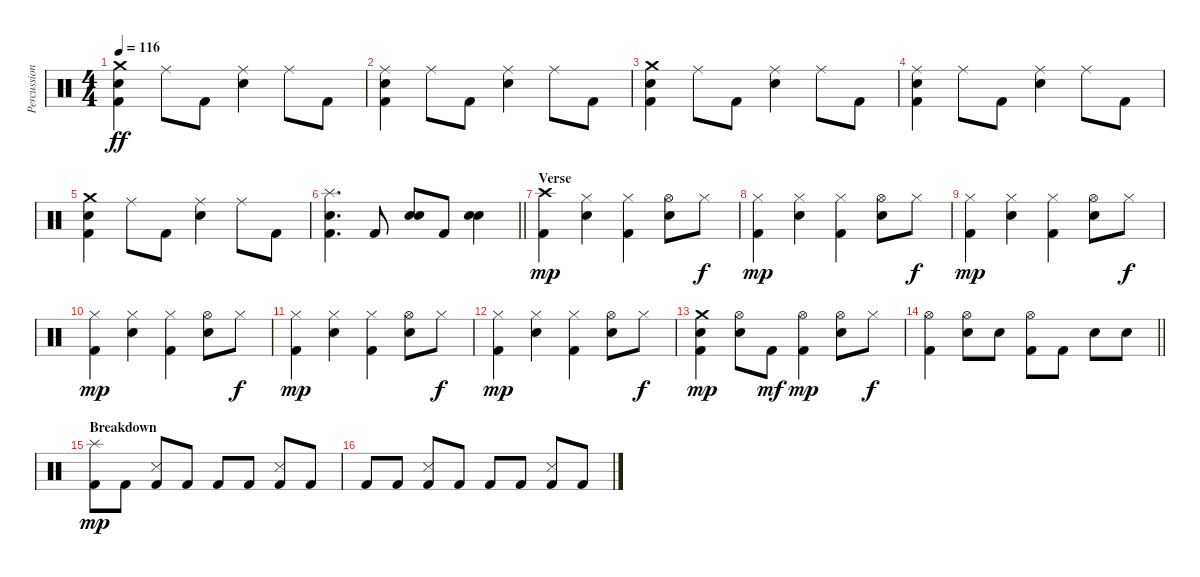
\track ("Percussion" "Percussion") {instrument percussion}
\staff {score}
\articulation defaults
\ts (4 4)
\tempo 116
\clef neutral
\ks c
("Crash medium (hit)" "Snare (hit) 2" "Kick (hit) 2").4{dy ff} "Ride (middle)".8 "Kick (hit) 2".8 ("Ride (middle)" "Snare (hit) 2").4 "Ride (middle)".8 "Kick (hit) 2".8 |
("Ride (middle)" "Snare (hit) 2" "Kick (hit) 2").4 "Ride (middle)".8 "Kick (hit) 2".8 ("Ride (middle)" "Snare (hit) 2").4 "Ride (middle)".8 "Kick (hit) 2".8 |
("Crash medium (hit)" "Snare (hit) 2" "Kick (hit) 2").4 "Ride (middle)".8 "Kick (hit) 2".8 ("Ride (middle)" "Snare (hit) 2").4 "Ride (middle)".8 "Kick (hit) 2".8 |
("Ride (middle)" "Snare (hit) 2" "Kick (hit) 2").4 "Ride (middle)".8 "Kick (hit) 2".8 ("Ride (middle)" "Snare (hit) 2").4 "Ride (middle)".8 "Kick (hit) 2".8 |
("Crash medium (hit)" "Snare (hit) 2" "Kick (hit) 2").4 "Ride (middle)".8 "Kick (hit) 2".8 ("Ride (middle)" "Snare (hit) 2").4 "Ride (middle)".8 "Kick (hit) 2".8 |
\barLineRight lightlight
("Splash (hit)" "Snare (hit) 2" "Kick (hit) 2").4{d} "Kick (hit) 2".8 ("Snare (hit) 2" "Snare (hit) 2").8 "Kick (hit) 2".8 ("Snare (hit) 2" "Snare (hit) 2").4 |
\section ("" "Verse")
("Crash high (hit)" "Kick (hit) 2").4{dy mp} ("Hi-Hat (closed)" "Snare (hit) 2").4 ("Hi-Hat (closed)" "Kick (hit) 2").4 ("Hi-Hat (open)" "Snare (hit) 2").8 "Hi-Hat (closed)".8{dy f} |
("Hi-Hat (closed)" "Kick (hit) 2").4{dy mp} ("Hi-Hat (closed)" "Snare (hit) 2").4 ("Hi-Hat (closed)" "Kick (hit) 2").4 ("Hi-Hat (open)" "Snare (hit) 2").8 "Hi-Hat (closed)".8{dy f} |
("Hi-Hat (closed)" "Kick (hit) 2").4{dy mp} ("Hi-Hat (closed)" "Snare (hit) 2").4 ("Hi-Hat (closed)" "Kick (hit) 2").4 ("Hi-Hat (open)" "Snare (hit) 2").8 "Hi-Hat (closed)".8{dy f} |
("Hi-Hat (closed)" "Kick (hit) 2").4{dy mp} ("Hi-Hat (closed)" "Snare (hit) 2").4 ("Hi-Hat (closed)" "Kick (hit) 2").4 ("Hi-Hat (open)" "Snare (hit) 2").8 "Hi-Hat (closed)".8{dy f} |
("Hi-Hat (closed)" "Kick (hit) 2").4{dy mp} ("Hi-Hat (closed)" "Snare (hit) 2").4 ("Hi-Hat (closed)" "Kick (hit) 2").4 ("Hi-Hat (open)" "Snare (hit) 2").8 "Hi-Hat (closed)".8{dy f} |
("Hi-Hat (closed)" "Kick (hit) 2").4{dy mp} ("Hi-Hat (closed)" "Snare (hit) 2").4 ("Hi-Hat (closed)" "Kick (hit) 2").4 ("Hi-Hat (open)" "Snare (hit) 2").8 "Hi-Hat (closed)".8{dy f} |
("Crash medium (hit)" "Snare (hit) 2" "Kick (hit) 2").4{dy mp} ("Hi-Hat (open)" "Snare (hit) 2").8 "Kick (hit) 2".8{dy mf} ("Hi-Hat (open)" "Kick (hit) 2").4{dy mp} ("Hi-Hat (open)" "Snare (hit) 2").8 "Hi-Hat (closed)".8{dy f} |
\barLineRight lightlight
("Hi-Hat (open)" "Kick (hit) 2").4 ("Hi-Hat (open)" "Snare (hit) 2").8 "Snare (hit) 2".8 ("Hi-Hat (open)" "Kick (hit) 2").8 "Kick (hit) 2".8 "Snare (hit) 2".8 "Snare (hit) 2".8 |
\section ("" "Breakdown")
("Splash (hit)" "Kick (hit) 2").8{dy mp} "Kick (hit) 2".8 ("Snare (side stick) 3" "Kick (hit) 2").8 "Kick (hit) 2".8 "Kick (hit) 2".8 "Kick (hit) 2".8 ("Snare (side stick) 3" "Kick (hit) 2").8 "Kick (hit) 2".8 |
"Kick (hit) 2".8 "Kick (hit) 2".8 ("Snare (side stick) 3" "Kick (hit) 2").8 "Kick (hit) 2".8 "Kick (hit) 2".8 "Kick (hit) 2".8 ("Snare (side stick) 3" "Kick (hit) 2").8 "Kick (hit) 2".8
